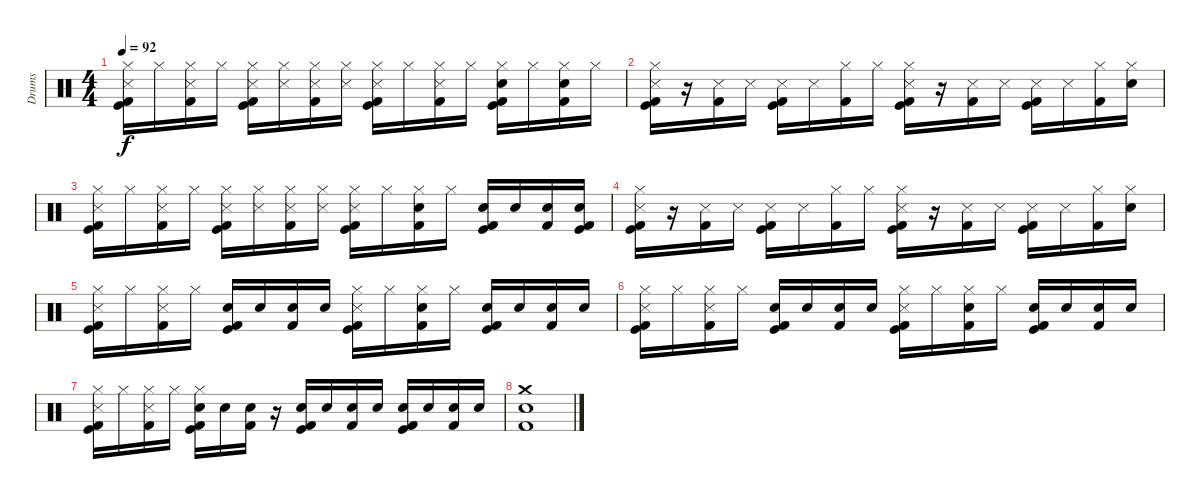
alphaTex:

\track ("Drums" "Drums") {instrument percussion}
\staff {score}
\articulation defaults
\ts (4 4)
\tempo 92
\clef neutral
\ks c
("Hi-Hat (closed)" "Snare (side stick) 3" "Kick (hit)" "Kick (hit) 2").16{dy f} "Hi-Hat (closed)".16 ("Hi-Hat (closed)" "Snare (side stick) 3" "Kick (hit) 2").16 "Hi-Hat (closed)".16 ("Hi-Hat (closed)" "Snare (side stick) 3" "Kick (hit)" "Kick (hit) 2").16 ("Hi-Hat (closed)" "Snare (side stick) 3").16 ("Hi-Hat (closed)" "Snare (side stick) 3" "Kick (hit) 2").16 ("Hi-Hat (closed)" "Snare (side stick) 3").16 ("Hi-Hat (closed)" "Snare (side stick) 3" "Kick (hit)" "Kick (hit) 2").16 "Hi-Hat (closed)".16 ("Hi-Hat (closed)" "Snare (side stick) 3" "Kick (hit) 2").16 "Hi-Hat (closed)".16 ("Hi-Hat (closed)" "Snare (hit) 2" "Kick (hit)" "Kick (hit) 2").16 "Hi-Hat (closed)".16 ("Hi-Hat (closed)" "Snare (hit) 2" "Kick (hit) 2").16 "Hi-Hat (closed)".16 |
("Hi-Hat (closed)" "Snare (side stick) 3" "Kick (hit)" "Kick (hit) 2").16 r.16 ("Snare (side stick) 3" "Kick (hit) 2").16 "Snare (side stick) 3".16 ("Snare (side stick) 3" "Kick (hit)" "Kick (hit) 2").16 "Snare (side stick) 3".16 ("Hi-Hat (closed)" "Kick (hit) 2").16 "Hi-Hat (closed)".16 ("Hi-Hat (closed)" "Snare (side stick) 3" "Kick (hit)" "Kick (hit) 2").16 r.16 ("Snare (side stick) 3" "Kick (hit) 2").16 "Snare (side stick) 3".16 ("Snare (side stick) 3" "Kick (hit)" "Kick (hit) 2").16 "Snare (side stick) 3".16 ("Hi-Hat (closed)" "Kick (hit) 2").16 ("Hi-Hat (closed)" "Snare (hit) 2").16 |
("Hi-Hat (closed)" "Snare (side stick) 3" "Kick (hit)" "Kick (hit) 2").16 "Hi-Hat (closed)".16 ("Hi-Hat (closed)" "Snare (side stick) 3" "Kick (hit) 2").16 "Hi-Hat (closed)".16 ("Hi-Hat (closed)" "Snare (side stick) 3" "Kick (hit)" "Kick (hit) 2").16 ("Hi-Hat (closed)" "Snare (side stick) 3").16 ("Hi-Hat (closed)" "Snare (side stick) 3" "Kick (hit) 2").16 ("Hi-Hat (closed)" "Snare (side stick) 3").16 ("Hi-Hat (closed)" "Snare (side stick) 3" "Kick (hit)" "Kick (hit) 2").16 "Hi-Hat (closed)".16 ("Hi-Hat (closed)" "Snare (hit) 2" "Kick (hit) 2").16 "Hi-Hat (closed)".16 ("Snare (hit) 2" "Kick (hit)" "Kick (hit) 2").16 "Snare (hit) 2".16 ("Snare (hit) 2" "Kick (hit) 2").16 ("Snare (hit) 2" "Kick (hit)" "Kick (hit) 2").16 |
("Hi-Hat (closed)" "Snare (side stick) 3" "Kick (hit)" "Kick (hit) 2").16 r.16 ("Snare (side stick) 3" "Kick (hit) 2").16 "Snare (side stick) 3".16 ("Snare (side stick) 3" "Kick (hit)" "Kick (hit) 2").16 "Snare (side stick) 3".16 ("Hi-Hat (closed)" "Kick (hit) 2").16 "Hi-Hat (closed)".16 ("Hi-Hat (closed)" "Snare (side stick) 3" "Kick (hit)" "Kick (hit) 2").16 r.16 ("Snare (side stick) 3" "Kick (hit) 2").16 "Snare (side stick) 3".16 ("Snare (side stick) 3" "Kick (hit)" "Kick (hit) 2").16 "Snare (side stick) 3".16 ("Hi-Hat (closed)" "Kick (hit) 2").16 ("Hi-Hat (closed)" "Snare (hit) 2").16 |
("Hi-Hat (closed)" "Snare (side stick) 3" "Kick (hit)" "Kick (hit) 2").16 "Hi-Hat (closed)".16 ("Hi-Hat (closed)" "Snare (side stick) 3" "Kick (hit) 2").16 "Hi-Hat (closed)".16 ("Snare (hit) 2" "Kick (hit)" "Kick (hit) 2").16 "Snare (hit) 2".16 ("Snare (hit) 2" "Kick (hit) 2").16 "Snare (hit) 2".16 ("Hi-Hat (closed)" "Snare (side stick) 3" "Kick (hit)" "Kick (hit) 2").16 "Hi-Hat (closed)".16 ("Hi-Hat (closed)" "Snare (hit) 2" "Kick (hit) 2").16 "Hi-Hat (closed)".16 ("Snare (hit) 2" "Kick (hit)" "Kick (hit) 2").16 "Snare (hit) 2".16 ("Snare (hit) 2" "Kick (hit) 2").16 "Snare (hit) 2".16 |
("Hi-Hat (closed)" "Snare (side stick) 3" "Kick (hit)" "Kick (hit) 2").16 "Hi-Hat (closed)".16 ("Hi-Hat (closed)" "Snare (side stick) 3" "Kick (hit) 2").16 "Hi-Hat (closed)".16 ("Snare (hit) 2" "Kick (hit)" "Kick (hit) 2").16 "Snare (hit) 2".16 ("Snare (hit) 2" "Kick (hit) 2").16 "Snare (hit) 2".16 ("Hi-Hat (closed)" "Snare (side stick) 3" "Kick (hit)" "Kick (hit) 2").16 "Hi-Hat (closed)".16 ("Hi-Hat (closed)" "Snare (hit) 2" "Kick (hit) 2").16 "Hi-Hat (closed)".16 ("Snare (hit) 2" "Kick (hit)" "Kick (hit) 2").16 "Snare (hit) 2".16 ("Snare (hit) 2" "Kick (hit) 2").16 "Snare (hit) 2".16 |
("Hi-Hat (closed)" "Snare (side stick) 3" "Kick (hit)" "Kick (hit) 2").16 "Hi-Hat (closed)".16 ("Hi-Hat (closed)" "Snare (side stick) 3" "Kick (hit) 2").16 "Hi-Hat (closed)".16 ("Hi-Hat (closed)" "Snare (hit) 2" "Kick (hit)" "Kick (hit) 2").16 "Snare (hit) 2".16 ("Snare (hit) 2" "Kick (hit) 2").16 r.16 ("Snare (hit) 2" "Kick (hit)" "Kick (hit) 2").16 "Snare (hit) 2".16 ("Snare (hit) 2" "Kick (hit) 2").16 "Snare (hit) 2".16 ("Snare (hit) 2" "Kick (hit)" "Kick (hit) 2").16 "Snare (hit) 2".16 ("Snare (hit) 2" "Kick (hit) 2").16 "Snare (hit) 2".16 |
("Crash medium (hit)" "Snare (hit) 2" "Kick (hit) 2").1
